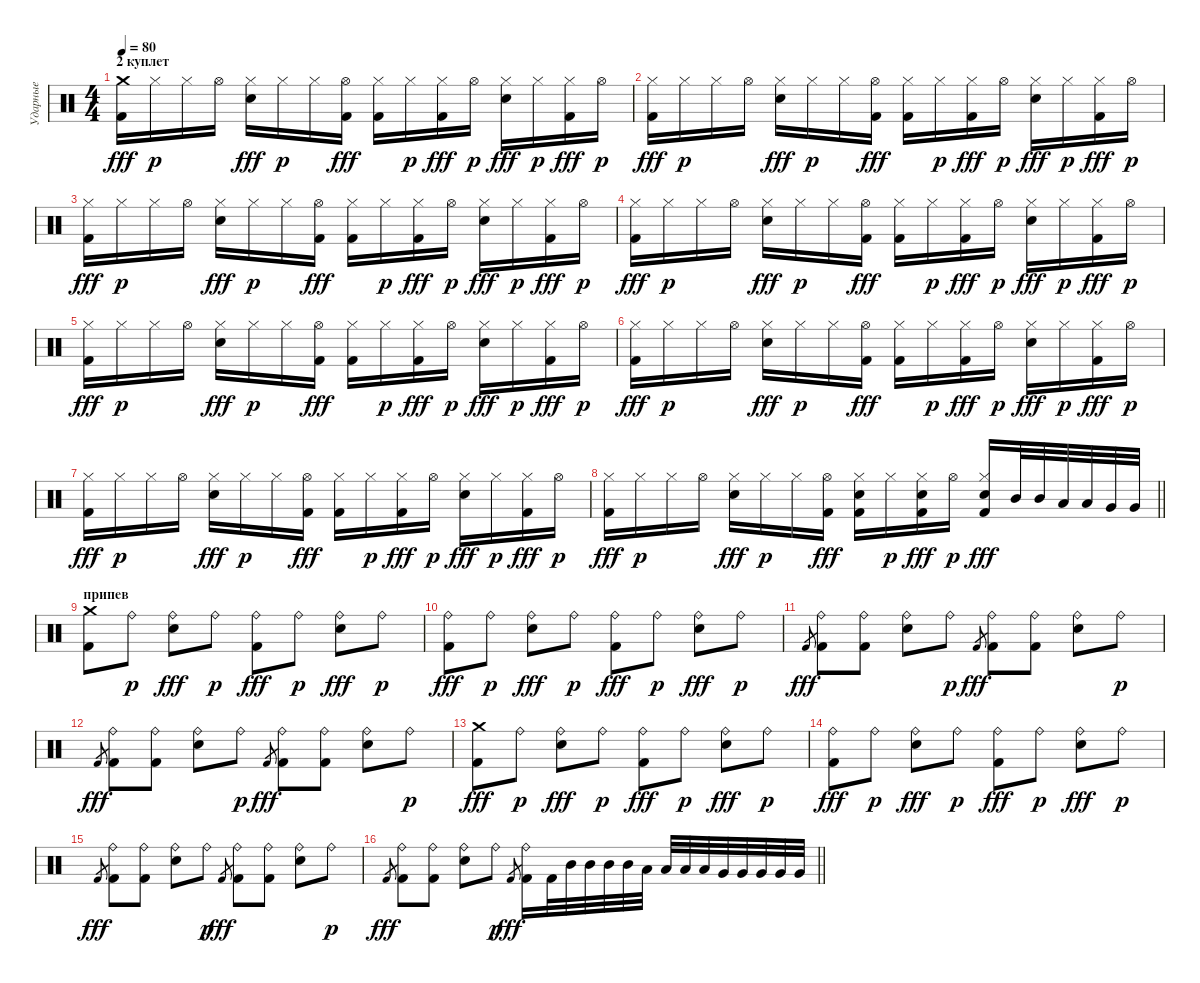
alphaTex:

\track ("Ударные" "Ударные") {instrument percussion}
\staff {score}
\articulation defaults
\ts (4 4)
\section ("" "2 куплет")
\tempo 80
\clef neutral
\ks c
("Crash medium (hit)" "Kick (hit) 2").16{dy fff} "Hi-Hat (closed)".16{dy p} "Hi-Hat (closed)".16 "Hi-Hat (open)".16 ("Hi-Hat (closed)" "Snare (hit) 2").16{dy fff} "Hi-Hat (closed)".16{dy p} "Hi-Hat (closed)".16 ("Hi-Hat (open)" "Kick (hit) 2").16{dy fff} ("Hi-Hat (closed)" "Kick (hit) 2").16 "Hi-Hat (closed)".16{dy p} ("Hi-Hat (closed)" "Kick (hit) 2").16{dy fff} "Hi-Hat (open)".16{dy p} ("Hi-Hat (closed)" "Snare (hit) 2").16{dy fff} "Hi-Hat (closed)".16{dy p} ("Hi-Hat (closed)" "Kick (hit) 2").16{dy fff} "Hi-Hat (open)".16{dy p} |
("Hi-Hat (closed)" "Kick (hit) 2").16{dy fff} "Hi-Hat (closed)".16{dy p} "Hi-Hat (closed)".16 "Hi-Hat (open)".16 ("Hi-Hat (closed)" "Snare (hit) 2").16{dy fff} "Hi-Hat (closed)".16{dy p} "Hi-Hat (closed)".16 ("Hi-Hat (open)" "Kick (hit) 2").16{dy fff} ("Hi-Hat (closed)" "Kick (hit) 2").16 "Hi-Hat (closed)".16{dy p} ("Hi-Hat (closed)" "Kick (hit) 2").16{dy fff} "Hi-Hat (open)".16{dy p} ("Hi-Hat (closed)" "Snare (hit) 2").16{dy fff} "Hi-Hat (closed)".16{dy p} ("Hi-Hat (closed)" "Kick (hit) 2").16{dy fff} "Hi-Hat (open)".16{dy p} |
("Hi-Hat (closed)" "Kick (hit) 2").16{dy fff} "Hi-Hat (closed)".16{dy p} "Hi-Hat (closed)".16 "Hi-Hat (open)".16 ("Hi-Hat (closed)" "Snare (hit) 2").16{dy fff} "Hi-Hat (closed)".16{dy p} "Hi-Hat (closed)".16 ("Hi-Hat (open)" "Kick (hit) 2").16{dy fff} ("Hi-Hat (closed)" "Kick (hit) 2").16 "Hi-Hat (closed)".16{dy p} ("Hi-Hat (closed)" "Kick (hit) 2").16{dy fff} "Hi-Hat (open)".16{dy p} ("Hi-Hat (closed)" "Snare (hit) 2").16{dy fff} "Hi-Hat (closed)".16{dy p} ("Hi-Hat (closed)" "Kick (hit) 2").16{dy fff} "Hi-Hat (open)".16{dy p} |
("Hi-Hat (closed)" "Kick (hit) 2").16{dy fff} "Hi-Hat (closed)".16{dy p} "Hi-Hat (closed)".16 "Hi-Hat (open)".16 ("Hi-Hat (closed)" "Snare (hit) 2").16{dy fff} "Hi-Hat (closed)".16{dy p} "Hi-Hat (closed)".16 ("Hi-Hat (open)" "Kick (hit) 2").16{dy fff} ("Hi-Hat (closed)" "Kick (hit) 2").16 "Hi-Hat (closed)".16{dy p} ("Hi-Hat (closed)" "Kick (hit) 2").16{dy fff} "Hi-Hat (open)".16{dy p} ("Hi-Hat (closed)" "Snare (hit) 2").16{dy fff} "Hi-Hat (closed)".16{dy p} ("Hi-Hat (closed)" "Kick (hit) 2").16{dy fff} "Hi-Hat (open)".16{dy p} |
("Hi-Hat (closed)" "Kick (hit) 2").16{dy fff} "Hi-Hat (closed)".16{dy p} "Hi-Hat (closed)".16 "Hi-Hat (open)".16 ("Hi-Hat (closed)" "Snare (hit) 2").16{dy fff} "Hi-Hat (closed)".16{dy p} "Hi-Hat (closed)".16 ("Hi-Hat (open)" "Kick (hit) 2").16{dy fff} ("Hi-Hat (closed)" "Kick (hit) 2").16 "Hi-Hat (closed)".16{dy p} ("Hi-Hat (closed)" "Kick (hit) 2").16{dy fff} "Hi-Hat (open)".16{dy p} ("Hi-Hat (closed)" "Snare (hit) 2").16{dy fff} "Hi-Hat (closed)".16{dy p} ("Hi-Hat (closed)" "Kick (hit) 2").16{dy fff} "Hi-Hat (open)".16{dy p} |
("Hi-Hat (closed)" "Kick (hit) 2").16{dy fff} "Hi-Hat (closed)".16{dy p} "Hi-Hat (closed)".16 "Hi-Hat (open)".16 ("Hi-Hat (closed)" "Snare (hit) 2").16{dy fff} "Hi-Hat (closed)".16{dy p} "Hi-Hat (closed)".16 ("Hi-Hat (open)" "Kick (hit) 2").16{dy fff} ("Hi-Hat (closed)" "Kick (hit) 2").16 "Hi-Hat (closed)".16{dy p} ("Hi-Hat (closed)" "Kick (hit) 2").16{dy fff} "Hi-Hat (open)".16{dy p} ("Hi-Hat (closed)" "Snare (hit) 2").16{dy fff} "Hi-Hat (closed)".16{dy p} ("Hi-Hat (closed)" "Kick (hit) 2").16{dy fff} "Hi-Hat (open)".16{dy p} |
("Hi-Hat (closed)" "Kick (hit) 2").16{dy fff} "Hi-Hat (closed)".16{dy p} "Hi-Hat (closed)".16 "Hi-Hat (open)".16 ("Hi-Hat (closed)" "Snare (hit) 2").16{dy fff} "Hi-Hat (closed)".16{dy p} "Hi-Hat (closed)".16 ("Hi-Hat (open)" "Kick (hit) 2").16{dy fff} ("Hi-Hat (closed)" "Kick (hit) 2").16 "Hi-Hat (closed)".16{dy p} ("Hi-Hat (closed)" "Kick (hit) 2").16{dy fff} "Hi-Hat (open)".16{dy p} ("Hi-Hat (closed)" "Snare (hit) 2").16{dy fff} "Hi-Hat (closed)".16{dy p} ("Hi-Hat (closed)" "Kick (hit) 2").16{dy fff} "Hi-Hat (open)".16{dy p} |
\barLineRight lightlight
("Hi-Hat (closed)" "Kick (hit) 2").16{dy fff} "Hi-Hat (closed)".16{dy p} "Hi-Hat (closed)".16 "Hi-Hat (open)".16 ("Hi-Hat (closed)" "Snare (hit) 2").16{dy fff} "Hi-Hat (closed)".16{dy p} "Hi-Hat (closed)".16 ("Hi-Hat (open)" "Kick (hit) 2").16{dy fff} ("Hi-Hat (closed)" "Snare (hit) 2" "Kick (hit) 2").16 "Hi-Hat (closed)".16{dy p} ("Hi-Hat (closed)" "Snare (hit) 2" "Kick (hit) 2").16{dy fff} "Hi-Hat (open)".16{dy p} ("Hi-Hat (closed)" "Snare (hit) 2" "Kick (hit) 2").16{dy fff} "Mid Tom (hit)".32 "Mid Tom (hit)".32 "Low Tom (hit)".32 "Low Tom (hit)".32 "Very Low Tom (hit)".32 "Very Low Tom (hit)".32 |
\section ("" "припев")
("Crash medium (hit)" "Kick (hit) 2").8 "Ride (bell)".8{dy p} ("Ride (bell)" "Snare (hit) 2").8{dy fff} "Ride (bell)".8{dy p} ("Ride (bell)" "Kick (hit) 2").8{dy fff} "Ride (bell)".8{dy p} ("Ride (bell)" "Snare (hit) 2").8{dy fff} "Ride (bell)".8{dy p} |
("Ride (bell)" "Kick (hit) 2").8{dy fff} "Ride (bell)".8{dy p} ("Ride (bell)" "Snare (hit) 2").8{dy fff} "Ride (bell)".8{dy p} ("Ride (bell)" "Kick (hit) 2").8{dy fff} "Ride (bell)".8{dy p} ("Ride (bell)" "Snare (hit) 2").8{dy fff} "Ride (bell)".8{dy p} |
"Kick (hit) 2".8{gr dy fff} ("Ride (bell)" "Kick (hit) 2").8 ("Ride (bell)" "Kick (hit) 2").8 ("Ride (bell)" "Snare (hit) 2").8 "Ride (bell)".8{dy p} "Kick (hit) 2".8{gr dy fff} ("Ride (bell)" "Kick (hit) 2").8 ("Ride (bell)" "Kick (hit) 2").8 ("Ride (bell)" "Snare (hit) 2").8 "Ride (bell)".8{dy p} |
"Kick (hit) 2".8{gr dy fff} ("Ride (bell)" "Kick (hit) 2").8 ("Ride (bell)" "Kick (hit) 2").8 ("Ride (bell)" "Snare (hit) 2").8 "Ride (bell)".8{dy p} "Kick (hit) 2".8{gr dy fff} ("Ride (bell)" "Kick (hit) 2").8 ("Ride (bell)" "Kick (hit) 2").8 ("Ride (bell)" "Snare (hit) 2").8 "Ride (bell)".8{dy p} |
("Crash medium (hit)" "Kick (hit) 2").8{dy fff} "Ride (bell)".8{dy p} ("Ride (bell)" "Snare (hit) 2").8{dy fff} "Ride (bell)".8{dy p} ("Ride (bell)" "Kick (hit) 2").8{dy fff} "Ride (bell)".8{dy p} ("Ride (bell)" "Snare (hit) 2").8{dy fff} "Ride (bell)".8{dy p} |
("Ride (bell)" "Kick (hit) 2").8{dy fff} "Ride (bell)".8{dy p} ("Ride (bell)" "Snare (hit) 2").8{dy fff} "Ride (bell)".8{dy p} ("Ride (bell)" "Kick (hit) 2").8{dy fff} "Ride (bell)".8{dy p} ("Ride (bell)" "Snare (hit) 2").8{dy fff} "Ride (bell)".8{dy p} |
"Kick (hit) 2".8{gr dy fff} ("Ride (bell)" "Kick (hit) 2").8 ("Ride (bell)" "Kick (hit) 2").8 ("Ride (bell)" "Snare (hit) 2").8 "Ride (bell)".8{dy p} "Kick (hit) 2".8{gr dy fff} ("Ride (bell)" "Kick (hit) 2").8 ("Ride (bell)" "Kick (hit) 2").8 ("Ride (bell)" "Snare (hit) 2").8 "Ride (bell)".8{dy p} |
\barLineRight lightlight "Kick (hit) 2".8{gr dy fff}
("Ride (bell)" "Kick (hit) 2").8 ("Ride (bell)" "Kick (hit) 2").8 ("Ride (bell)" "Snare (hit) 2").8 "Ride (bell)".8{dy p} "Kick (hit) 2".8{gr dy fff} ("Ride (bell)" "Kick (hit) 2").16 "Kick (hit) 2".32 "Mid Tom (hit)".32 "Mid Tom (hit)".32 "Mid Tom (hit)".32 "Mid Tom (hit)".32 "Low Tom (hit)".32 "Low Tom (hit)".32 "Low Tom (hit)".32 "Low Tom (hit)".32 "Very Low Tom (hit)".32 "Very Low Tom (hit)".32 "Very Low Tom (hit)".32 "Very Low Tom (hit)".32 "Very Low Tom (hit)".32
